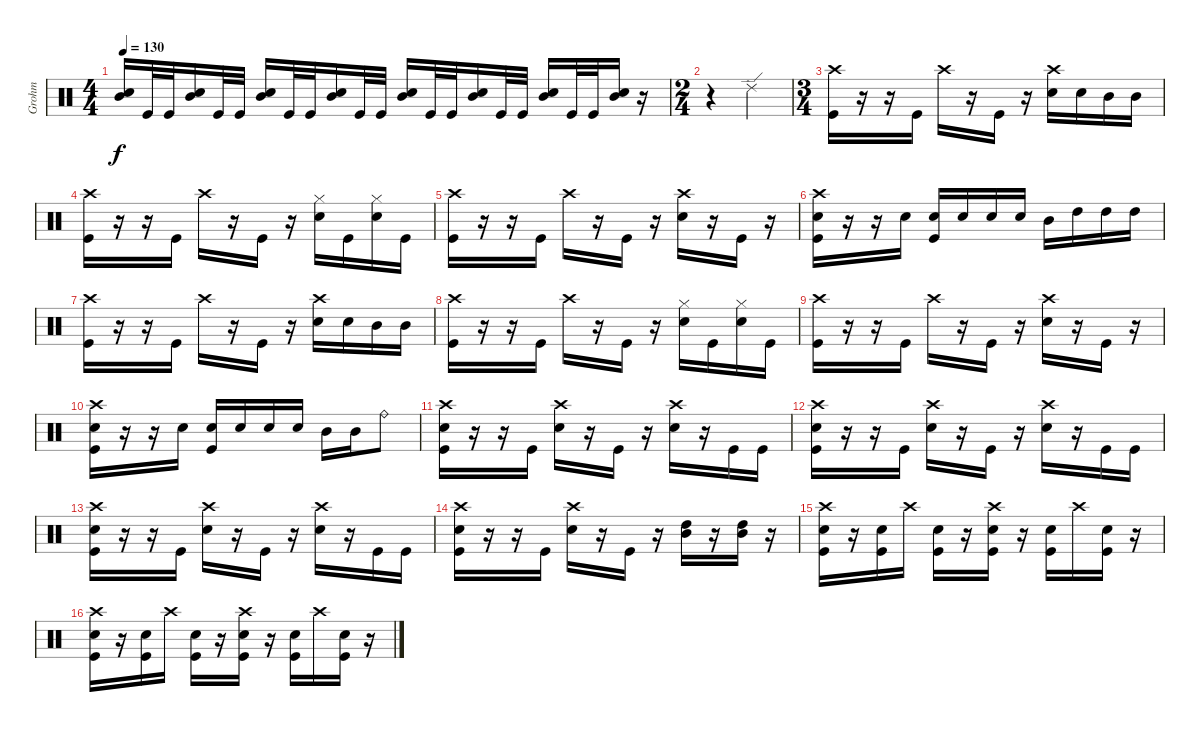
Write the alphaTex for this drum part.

\track ("Grohm" "Grohm") {instrument percussion}
\staff {score}
\articulation defaults
\ts (4 4)
\tempo 130
\clef neutral
\ks c
("Snare (hit) 2" "Mid Tom (hit)").16{dy f} "Kick (hit)".32 "Kick (hit)".32 ("Snare (hit) 2" "Mid Tom (hit)").16 "Kick (hit)".32 "Kick (hit)".32 ("Snare (hit) 2" "Mid Tom (hit)").16 "Kick (hit)".32 "Kick (hit)".32 ("Snare (hit) 2" "Mid Tom (hit)").16 "Kick (hit)".32 "Kick (hit)".32 ("Snare (hit) 2" "Mid Tom (hit)").16 "Kick (hit)".32 "Kick (hit)".32 ("Snare (hit) 2" "Mid Tom (hit)").16 "Kick (hit)".32 "Kick (hit)".32 ("Snare (hit) 2" "Mid Tom (hit)").16 "Kick (hit)".32 "Kick (hit)".32 ("Snare (hit) 2" "Mid Tom (hit)").16 r.16 |
\ts (2 4)
r.4 "Ride (edge) 2".4 |
\ts (3 4)
("Crash high (hit)" "Kick (hit)").16 r.16 r.16 "Kick (hit)".16 "Crash high (hit)".16 r.16 "Kick (hit)".16 r.16 ("Crash high (hit)" "Snare (hit) 2").16 "Snare (hit) 2".16 "Mid Tom (hit)".16 "Mid Tom (hit)".16 |
("Crash high (hit)" "Kick (hit)").16 r.16 r.16 "Kick (hit)".16 "Crash high (hit)".16 r.16 "Kick (hit)".16 r.16 ("Hi-Hat (closed)" "Snare (hit) 2").16 "Kick (hit)".16 ("Hi-Hat (closed)" "Snare (hit) 2").16 "Kick (hit)".16 |
("Crash high (hit)" "Kick (hit)").16 r.16 r.16 "Kick (hit)".16 "Crash high (hit)".16 r.16 "Kick (hit)".16 r.16 ("Crash high (hit)" "Snare (hit) 2").16 r.16 "Kick (hit)".16 r.16 |
("Crash high (hit)" "Snare (hit) 2" "Kick (hit)").16 r.16 r.16 "Snare (hit) 2".16 ("Snare (hit) 2" "Kick (hit)").16 "Snare (hit) 2".16 "Snare (hit) 2".16 "Snare (hit) 2".16 "Mid Tom (hit)".16 "High Tom (hit)".16 "High Tom (hit)".16 "High Tom (hit)".16 |
("Crash high (hit)" "Kick (hit)").16 r.16 r.16 "Kick (hit)".16 "Crash high (hit)".16 r.16 "Kick (hit)".16 r.16 ("Crash high (hit)" "Snare (hit) 2").16 "Snare (hit) 2".16 "Mid Tom (hit)".16 "Mid Tom (hit)".16 |
("Crash high (hit)" "Kick (hit)").16 r.16 r.16 "Kick (hit)".16 "Crash high (hit)".16 r.16 "Kick (hit)".16 r.16 ("Hi-Hat (closed)" "Snare (hit) 2").16 "Kick (hit)".16 ("Hi-Hat (closed)" "Snare (hit) 2").16 "Kick (hit)".16 |
("Crash high (hit)" "Kick (hit)").16 r.16 r.16 "Kick (hit)".16 "Crash high (hit)".16 r.16 "Kick (hit)".16 r.16 ("Crash high (hit)" "Snare (hit) 2").16 r.16 "Kick (hit)".16 r.16 |
("Crash high (hit)" "Snare (hit) 2" "Kick (hit)").16 r.16 r.16 "Snare (hit) 2".16 ("Snare (hit) 2" "Kick (hit)").16 "Snare (hit) 2".16 "Snare (hit) 2".16 "Snare (hit) 2".16 "Mid Tom (hit)".16 "Mid Tom (hit)".16 "Ride (bell)".8 |
("Crash high (hit)" "Snare (hit) 2" "Kick (hit)").16 r.16 r.16 "Kick (hit)".16 ("Crash high (hit)" "Snare (hit) 2").16 r.16 "Kick (hit)".16 r.16 ("Crash high (hit)" "Snare (hit) 2").16 r.16 "Kick (hit)".16 "Kick (hit)".16 |
("Crash high (hit)" "Snare (hit) 2" "Kick (hit)").16 r.16 r.16 "Kick (hit)".16 ("Crash high (hit)" "Snare (hit) 2").16 r.16 "Kick (hit)".16 r.16 ("Crash high (hit)" "Snare (hit) 2").16 r.16 "Kick (hit)".16 "Kick (hit)".16 |
("Crash high (hit)" "Snare (hit) 2" "Kick (hit)").16 r.16 r.16 "Kick (hit)".16 ("Crash high (hit)" "Snare (hit) 2").16 r.16 "Kick (hit)".16 r.16 ("Crash high (hit)" "Snare (hit) 2").16 r.16 "Kick (hit)".16 "Kick (hit)".16 |
("Crash high (hit)" "Snare (hit) 2" "Kick (hit)").16 r.16 r.16 "Kick (hit)".16 ("Crash high (hit)" "Snare (hit) 2").16 r.16 "Kick (hit)".16 r.16 ("High Tom (hit)" "Mid Tom (hit)").16 r.16 ("High Tom (hit)" "Mid Tom (hit)").16 r.16 |
("Crash high (hit)" "Snare (hit) 2" "Kick (hit)").16 r.16 ("Snare (hit) 2" "Kick (hit)").16 "Crash high (hit)".16 ("Snare (hit) 2" "Kick (hit)").16 r.16 ("Crash high (hit)" "Snare (hit) 2" "Kick (hit)").16 r.16 ("Snare (hit) 2" "Kick (hit)").16 "Crash high (hit)".16 ("Snare (hit) 2" "Kick (hit)").16 r.16 |
("Crash high (hit)" "Snare (hit) 2" "Kick (hit)").16 r.16 ("Snare (hit) 2" "Kick (hit)").16 "Crash high (hit)".16 ("Snare (hit) 2" "Kick (hit)").16 r.16 ("Crash high (hit)" "Snare (hit) 2" "Kick (hit)").16 r.16 ("Snare (hit) 2" "Kick (hit)").16 "Crash high (hit)".16 ("Snare (hit) 2" "Kick (hit)").16 r.16
